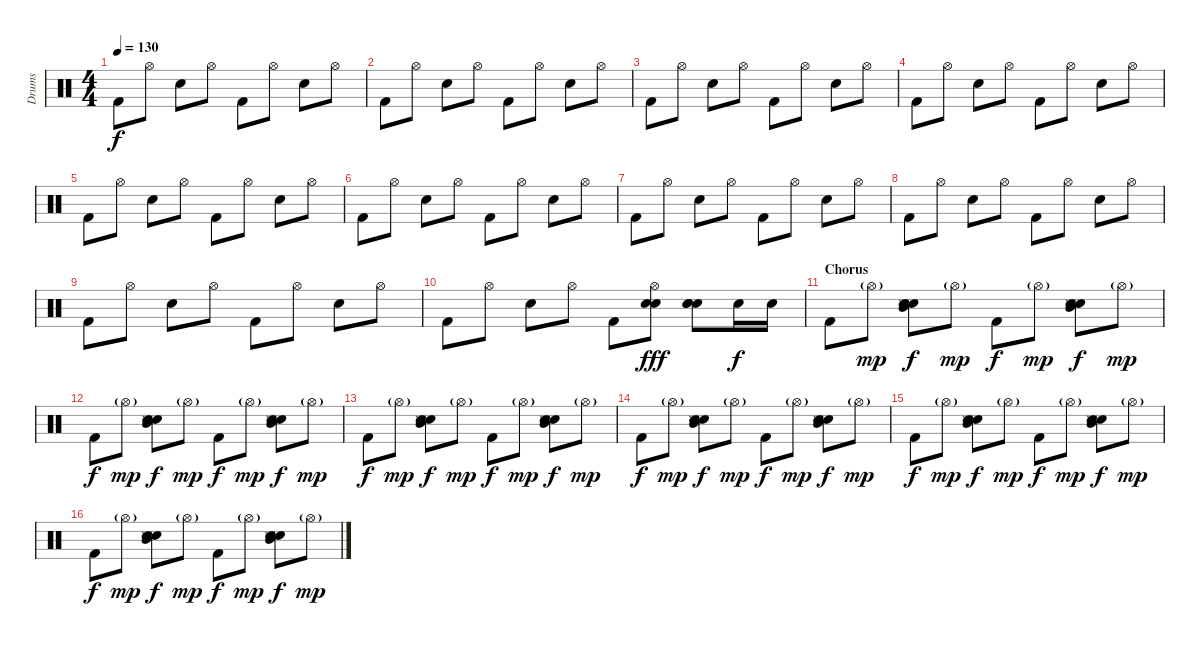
\track ("Drums" "Drums") {instrument percussion}
\staff {score}
\articulation defaults
\ts (4 4)
\tempo 130
\clef neutral
\ks c "Kick (hit) 2".8{dy f} "Hi-Hat (open)".8 "Snare (hit) 2".8 "Hi-Hat (open)".8 "Kick (hit) 2".8 "Hi-Hat (open)".8 "Snare (hit) 2".8 "Hi-Hat (open)".8
|
"Kick (hit) 2".8 "Hi-Hat (open)".8 "Snare (hit) 2".8 "Hi-Hat (open)".8 "Kick (hit) 2".8 "Hi-Hat (open)".8 "Snare (hit) 2".8 "Hi-Hat (open)".8 |
"Kick (hit) 2".8 "Hi-Hat (open)".8 "Snare (hit) 2".8 "Hi-Hat (open)".8 "Kick (hit) 2".8 "Hi-Hat (open)".8 "Snare (hit) 2".8 "Hi-Hat (open)".8 |
"Kick (hit) 2".8 "Hi-Hat (open)".8 "Snare (hit) 2".8 "Hi-Hat (open)".8 "Kick (hit) 2".8 "Hi-Hat (open)".8 "Snare (hit) 2".8 "Hi-Hat (open)".8 |
"Kick (hit) 2".8 "Hi-Hat (open)".8 "Snare (hit) 2".8 "Hi-Hat (open)".8 "Kick (hit) 2".8 "Hi-Hat (open)".8 "Snare (hit) 2".8 "Hi-Hat (open)".8 |
"Kick (hit) 2".8 "Hi-Hat (open)".8 "Snare (hit) 2".8 "Hi-Hat (open)".8 "Kick (hit) 2".8 "Hi-Hat (open)".8 "Snare (hit) 2".8 "Hi-Hat (open)".8 |
"Kick (hit) 2".8 "Hi-Hat (open)".8 "Snare (hit) 2".8 "Hi-Hat (open)".8 "Kick (hit) 2".8 "Hi-Hat (open)".8 "Snare (hit) 2".8 "Hi-Hat (open)".8 |
"Kick (hit) 2".8 "Hi-Hat (open)".8 "Snare (hit) 2".8 "Hi-Hat (open)".8 "Kick (hit) 2".8 "Hi-Hat (open)".8 "Snare (hit) 2".8 "Hi-Hat (open)".8 |
"Kick (hit) 2".8 "Hi-Hat (open)".8 "Snare (hit) 2".8 "Hi-Hat (open)".8 "Kick (hit) 2".8 "Hi-Hat (open)".8 "Snare (hit) 2".8 "Hi-Hat (open)".8 |
"Kick (hit) 2".8 "Hi-Hat (open)".8 "Snare (hit) 2".8 "Hi-Hat (open)".8 "Kick (hit) 2".8 ("Hand Clap (hit)" "Hi-Hat (open)" "Hand Clap (hit)").8{dy fff} ("Hand Clap (hit)" "Snare (hit) 2" "Hand Clap (hit)").8 "Electric Snare (hit)".16{dy f} "Electric Snare (hit)".16 |
\section ("" "Chorus")
"Kick (hit) 2".8 "Hi-Hat (open)"{g}.8{dy mp} ("Hand Clap (hit)" "Snare (side stick) 3" "Electric Snare (hit)" "Mid Tom (hit)").8{dy f} "Hi-Hat (open)"{g}.8{dy mp} "Kick (hit) 2".8{dy f} "Hi-Hat (open)"{g}.8{dy mp} ("Hand Clap (hit)" "Snare (side stick) 3" "Electric Snare (hit)" "Mid Tom (hit)").8{dy f} "Hi-Hat (open)"{g}.8{dy mp} |
"Kick (hit) 2".8{dy f} "Hi-Hat (open)"{g}.8{dy mp} ("Hand Clap (hit)" "Snare (side stick) 3" "Electric Snare (hit)" "Mid Tom (hit)").8{dy f} "Hi-Hat (open)"{g}.8{dy mp} "Kick (hit) 2".8{dy f} "Hi-Hat (open)"{g}.8{dy mp} ("Hand Clap (hit)" "Snare (side stick) 3" "Electric Snare (hit)" "Mid Tom (hit)").8{dy f} "Hi-Hat (open)"{g}.8{dy mp} |
"Kick (hit) 2".8{dy f} "Hi-Hat (open)"{g}.8{dy mp} ("Hand Clap (hit)" "Snare (side stick) 3" "Electric Snare (hit)" "Mid Tom (hit)").8{dy f} "Hi-Hat (open)"{g}.8{dy mp} "Kick (hit) 2".8{dy f} "Hi-Hat (open)"{g}.8{dy mp} ("Hand Clap (hit)" "Snare (side stick) 3" "Electric Snare (hit)" "Mid Tom (hit)").8{dy f} "Hi-Hat (open)"{g}.8{dy mp} |
"Kick (hit) 2".8{dy f} "Hi-Hat (open)"{g}.8{dy mp} ("Hand Clap (hit)" "Snare (side stick) 3" "Electric Snare (hit)" "Mid Tom (hit)").8{dy f} "Hi-Hat (open)"{g}.8{dy mp} "Kick (hit) 2".8{dy f} "Hi-Hat (open)"{g}.8{dy mp} ("Hand Clap (hit)" "Snare (side stick) 3" "Electric Snare (hit)" "Mid Tom (hit)").8{dy f} "Hi-Hat (open)"{g}.8{dy mp} |
"Kick (hit) 2".8{dy f} "Hi-Hat (open)"{g}.8{dy mp} ("Hand Clap (hit)" "Snare (side stick) 3" "Electric Snare (hit)" "Mid Tom (hit)").8{dy f} "Hi-Hat (open)"{g}.8{dy mp} "Kick (hit) 2".8{dy f} "Hi-Hat (open)"{g}.8{dy mp} ("Hand Clap (hit)" "Snare (side stick) 3" "Electric Snare (hit)" "Mid Tom (hit)").8{dy f} "Hi-Hat (open)"{g}.8{dy mp} |
"Kick (hit) 2".8{dy f} "Hi-Hat (open)"{g}.8{dy mp} ("Hand Clap (hit)" "Snare (side stick) 3" "Electric Snare (hit)" "Mid Tom (hit)").8{dy f} "Hi-Hat (open)"{g}.8{dy mp} "Kick (hit) 2".8{dy f} "Hi-Hat (open)"{g}.8{dy mp} ("Hand Clap (hit)" "Snare (side stick) 3" "Electric Snare (hit)" "Mid Tom (hit)").8{dy f} "Hi-Hat (open)"{g}.8{dy mp}
